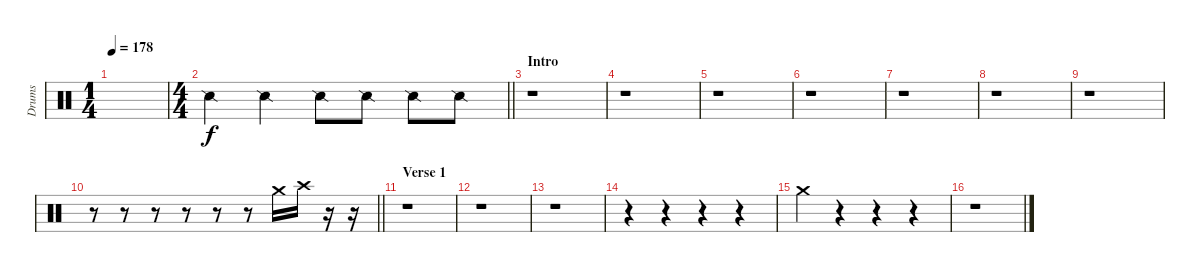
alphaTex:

\track ("Drums               " "Drums     ") {instrument percussion}
\staff {score}
\articulation defaults
\ts (1 4)
\tempo 178
\clef neutral
\ks c
|
\ts (4 4)
\barLineRight lightlight "Snare (side stick) 2".4 "Snare (side stick) 2".4 "Snare (side stick) 2".8 "Snare (side stick) 2".8 "Snare (side stick) 2".8 "Snare (side stick) 2".8
|
\section ("" "Intro")
r.1 |
r.1 |
r.1 |
r.1 |
r.1 |
r.1 |
r.1 |
\barLineRight lightlight
r.8 r.8 r.8 r.8 r.8 r.8 "Crash medium (hit)".16 "Crash high (hit)".16 r.16 r.16 |
\section ("" "Verse 1")
r.1 |
r.1 |
r.1 |
r.4 r.4 r.4 r.4 |
"Crash medium (hit)".4 r.4 r.4 r.4 |
r.1
